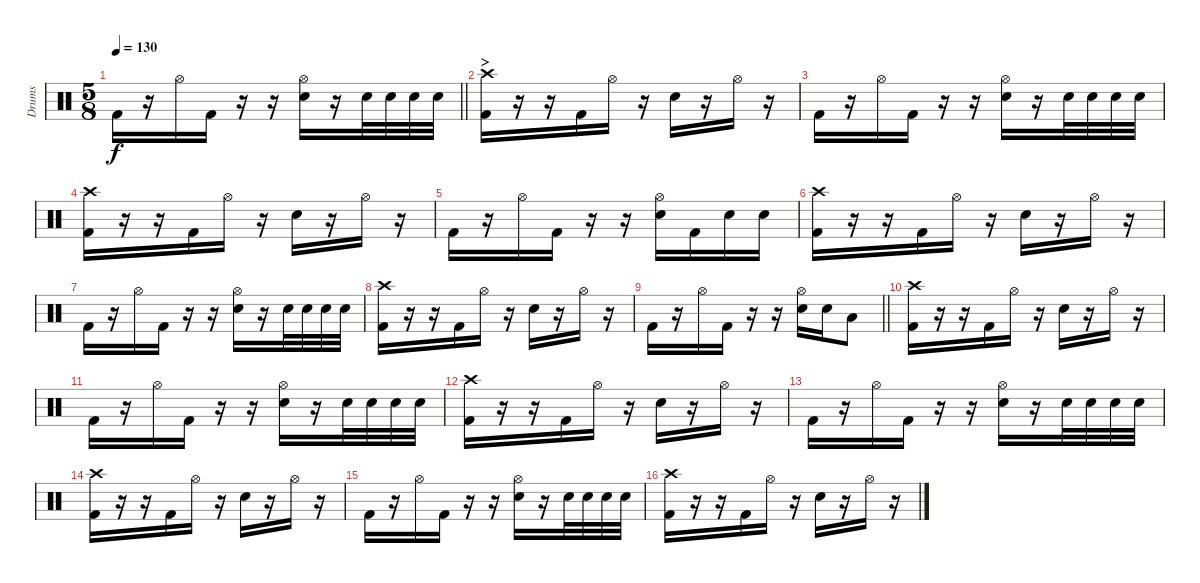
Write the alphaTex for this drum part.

\track ("Drums" "Drums") {instrument percussion}
\staff {score}
\articulation defaults
\ts (5 8)
\tempo 130
\clef neutral
\barLineRight lightlight
\ks c "Kick (hit) 2".16{dy f}
r.16 "Hi-Hat (open)".16 "Kick (hit) 2".16 r.16 r.16 ("Hi-Hat (open)" "Electric Snare (hit)").16 r.16 "Electric Snare (hit)".32 "Electric Snare (hit)".32 "Electric Snare (hit)".32 "Electric Snare (hit)".32 |
\section ("" ">")
("Crash high (hit)" "Kick (hit) 2").16 r.16 r.16 "Kick (hit) 2".16 "Hi-Hat (open)".16 r.16 "Electric Snare (hit)".16 r.16 "Hi-Hat (open)".16 r.16 |
"Kick (hit) 2".16 r.16 "Hi-Hat (open)".16 "Kick (hit) 2".16 r.16 r.16 ("Hi-Hat (open)" "Electric Snare (hit)").16 r.16 "Electric Snare (hit)".32 "Electric Snare (hit)".32 "Electric Snare (hit)".32 "Electric Snare (hit)".32 |
("Crash high (hit)" "Kick (hit) 2").16 r.16 r.16 "Kick (hit) 2".16 "Hi-Hat (open)".16 r.16 "Electric Snare (hit)".16 r.16 "Hi-Hat (open)".16 r.16 |
"Kick (hit) 2".16 r.16 "Hi-Hat (open)".16 "Kick (hit) 2".16 r.16 r.16 ("Hi-Hat (open)" "Electric Snare (hit)").16 "Kick (hit) 2".16 "Electric Snare (hit)".16 "Electric Snare (hit)".16 |
("Crash high (hit)" "Kick (hit) 2").16 r.16 r.16 "Kick (hit) 2".16 "Hi-Hat (open)".16 r.16 "Electric Snare (hit)".16 r.16 "Hi-Hat (open)".16 r.16 |
"Kick (hit) 2".16 r.16 "Hi-Hat (open)".16 "Kick (hit) 2".16 r.16 r.16 ("Hi-Hat (open)" "Electric Snare (hit)").16 r.16 "Electric Snare (hit)".32 "Electric Snare (hit)".32 "Electric Snare (hit)".32 "Electric Snare (hit)".32 |
("Crash high (hit)" "Kick (hit) 2").16 r.16 r.16 "Kick (hit) 2".16 "Hi-Hat (open)".16 r.16 "Electric Snare (hit)".16 r.16 "Hi-Hat (open)".16 r.16 |
\barLineRight lightlight "Kick (hit) 2".16
r.16 "Hi-Hat (open)".16 "Kick (hit) 2".16 r.16 r.16 ("Hi-Hat (open)" "Electric Snare (hit)").16 "Electric Snare (hit)".16 "Low Tom (hit)".8 |
("Crash high (hit)" "Kick (hit) 2").16 r.16 r.16 "Kick (hit) 2".16 "Hi-Hat (open)".16 r.16 "Electric Snare (hit)".16 r.16 "Hi-Hat (open)".16 r.16 |
"Kick (hit) 2".16 r.16 "Hi-Hat (open)".16 "Kick (hit) 2".16 r.16 r.16 ("Hi-Hat (open)" "Electric Snare (hit)").16 r.16 "Electric Snare (hit)".32 "Electric Snare (hit)".32 "Electric Snare (hit)".32 "Electric Snare (hit)".32 |
("Crash high (hit)" "Kick (hit) 2").16 r.16 r.16 "Kick (hit) 2".16 "Hi-Hat (open)".16 r.16 "Electric Snare (hit)".16 r.16 "Hi-Hat (open)".16 r.16 |
"Kick (hit) 2".16 r.16 "Hi-Hat (open)".16 "Kick (hit) 2".16 r.16 r.16 ("Hi-Hat (open)" "Electric Snare (hit)").16 r.16 "Electric Snare (hit)".32 "Electric Snare (hit)".32 "Electric Snare (hit)".32 "Electric Snare (hit)".32 |
("Crash high (hit)" "Kick (hit) 2").16 r.16 r.16 "Kick (hit) 2".16 "Hi-Hat (open)".16 r.16 "Electric Snare (hit)".16 r.16 "Hi-Hat (open)".16 r.16 |
"Kick (hit) 2".16 r.16 "Hi-Hat (open)".16 "Kick (hit) 2".16 r.16 r.16 ("Hi-Hat (open)" "Electric Snare (hit)").16 r.16 "Electric Snare (hit)".32 "Electric Snare (hit)".32 "Electric Snare (hit)".32 "Electric Snare (hit)".32 |
("Crash high (hit)" "Kick (hit) 2").16 r.16 r.16 "Kick (hit) 2".16 "Hi-Hat (open)".16 r.16 "Electric Snare (hit)".16 r.16 "Hi-Hat (open)".16 r.16
